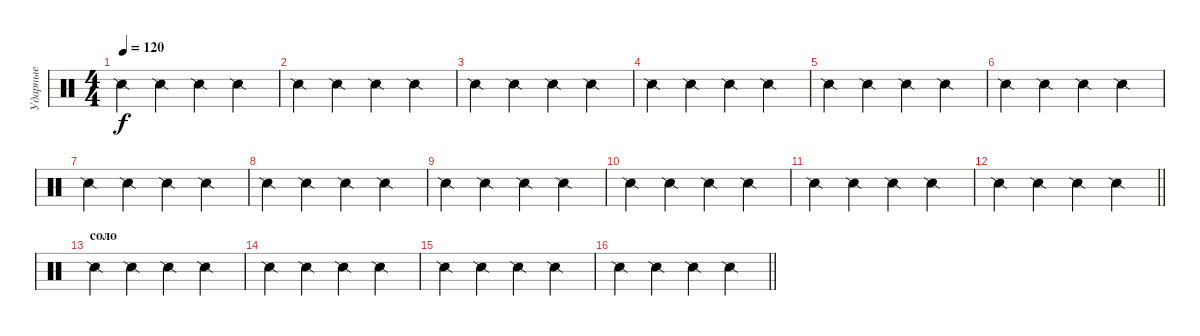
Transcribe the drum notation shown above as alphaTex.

\track ("Ударные" "Ударные") {mute instrument percussion}
\staff {score}
\articulation defaults
\ts (4 4)
\tempo 120
\clef neutral
\ks c "Snare (side stick) 2".4{dy f} "Snare (side stick) 2".4 "Snare (side stick) 2".4 "Snare (side stick) 2".4
|
"Snare (side stick) 2".4 "Snare (side stick) 2".4 "Snare (side stick) 2".4 "Snare (side stick) 2".4 |
"Snare (side stick) 2".4 "Snare (side stick) 2".4 "Snare (side stick) 2".4 "Snare (side stick) 2".4 |
"Snare (side stick) 2".4 "Snare (side stick) 2".4 "Snare (side stick) 2".4 "Snare (side stick) 2".4 |
"Snare (side stick) 2".4 "Snare (side stick) 2".4 "Snare (side stick) 2".4 "Snare (side stick) 2".4 |
"Snare (side stick) 2".4 "Snare (side stick) 2".4 "Snare (side stick) 2".4 "Snare (side stick) 2".4 |
"Snare (side stick) 2".4 "Snare (side stick) 2".4 "Snare (side stick) 2".4 "Snare (side stick) 2".4 |
"Snare (side stick) 2".4 "Snare (side stick) 2".4 "Snare (side stick) 2".4 "Snare (side stick) 2".4 |
"Snare (side stick) 2".4 "Snare (side stick) 2".4 "Snare (side stick) 2".4 "Snare (side stick) 2".4 |
"Snare (side stick) 2".4 "Snare (side stick) 2".4 "Snare (side stick) 2".4 "Snare (side stick) 2".4 |
"Snare (side stick) 2".4 "Snare (side stick) 2".4 "Snare (side stick) 2".4 "Snare (side stick) 2".4 |
\barLineRight lightlight "Snare (side stick) 2".4 "Snare (side stick) 2".4 "Snare (side stick) 2".4 "Snare (side stick) 2".4
|
\section ("" "соло")
"Snare (side stick) 2".4 "Snare (side stick) 2".4 "Snare (side stick) 2".4 "Snare (side stick) 2".4 |
"Snare (side stick) 2".4 "Snare (side stick) 2".4 "Snare (side stick) 2".4 "Snare (side stick) 2".4 |
"Snare (side stick) 2".4 "Snare (side stick) 2".4 "Snare (side stick) 2".4 "Snare (side stick) 2".4 |
\barLineRight lightlight "Snare (side stick) 2".4 "Snare (side stick) 2".4 "Snare (side stick) 2".4 "Snare (side stick) 2".4
